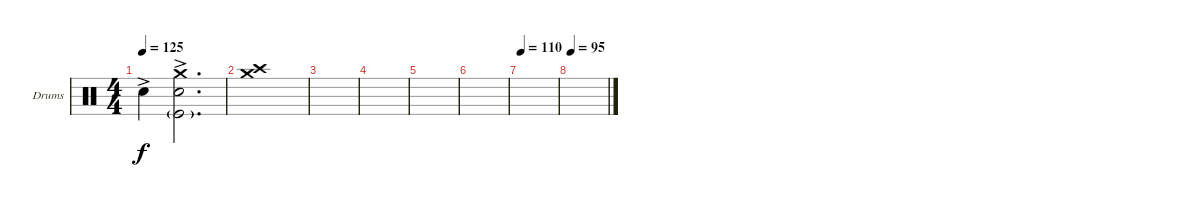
\defaultSystemsLayout 4
\bracketExtendMode groupsimilarinstruments
\firstSystemTrackNameOrientation horizontal
\otherSystemsTrackNameOrientation horizontal
\track ("Drumkit" "Drums") {instrument percussion}
\staff {score}
\articulation defaults
\ts (4 4)
\tempo 125
\clef neutral
\scale
0.333333
\ks c "Snare (hit) 2"{ac}.4{dy f}
("Snare (hit) 2" "Kick (hit)"{g} "Crash medium (hit)"{ac}).2{d} |
("Crash high (hit)" "Crash medium (hit)").1 |
|
|
|
|
\tempo 110
|
\tempo 95
